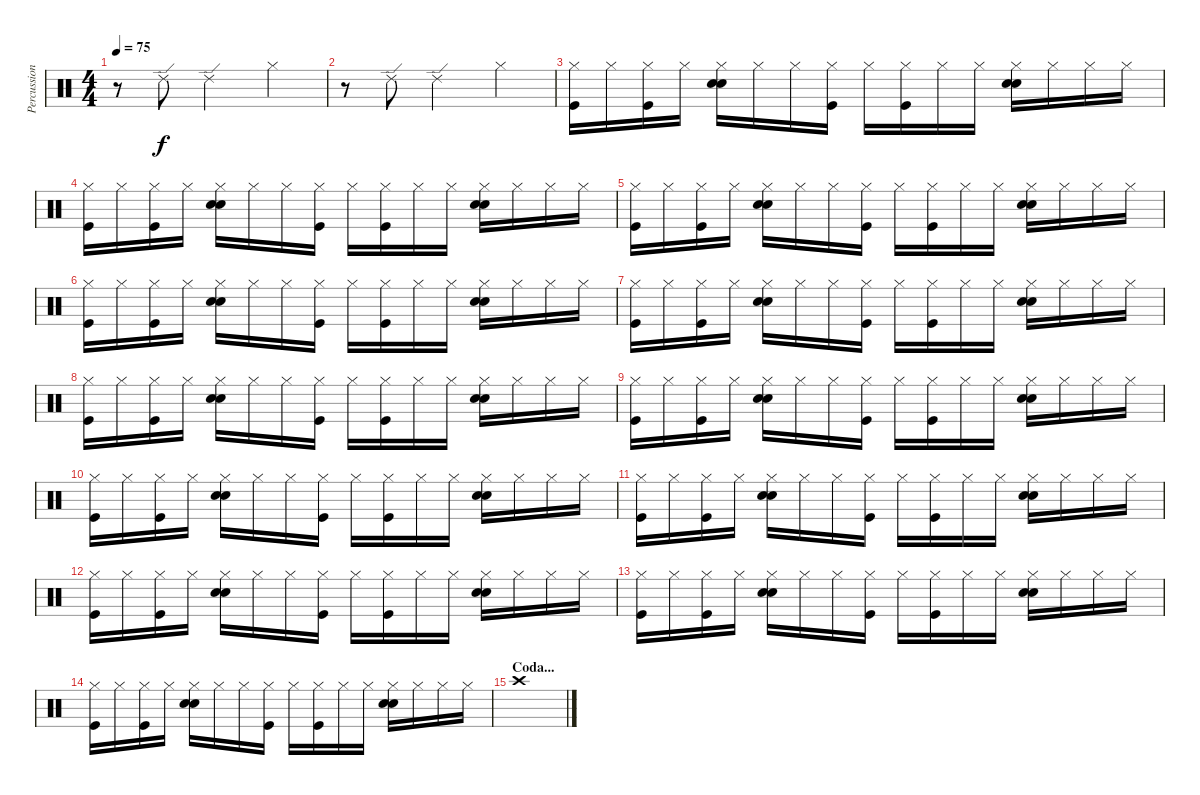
\track ("Percussion" "Percussion") {instrument percussion}
\staff {score}
\articulation defaults
\ts (4 4)
\tempo 75
\clef neutral
\ks c
r.8{dy f} "Ride (edge) 2".8 "Ride (edge) 2".2 "Hi-Hat (closed)".4 |
r.8 "Ride (edge) 2".8 "Ride (edge) 2".2 "Hi-Hat (closed)".4 |
("Kick (hit)" "Hi-Hat (closed)").16 "Hi-Hat (closed)".16 ("Kick (hit)" "Hi-Hat (closed)").16 "Hi-Hat (closed)".16 ("Snare (hit) 2" "Electric Snare (hit)" "Hi-Hat (closed)").16 "Hi-Hat (closed)".16 "Hi-Hat (closed)".16 ("Kick (hit)" "Hi-Hat (closed)").16 "Hi-Hat (closed)".16 ("Kick (hit)" "Hi-Hat (closed)").16 "Hi-Hat (closed)".16 "Hi-Hat (closed)".16 ("Snare (hit) 2" "Electric Snare (hit)" "Hi-Hat (closed)").16 "Hi-Hat (closed)".16 "Hi-Hat (closed)".16 "Hi-Hat (closed)".16 |
("Kick (hit)" "Hi-Hat (closed)").16 "Hi-Hat (closed)".16 ("Kick (hit)" "Hi-Hat (closed)").16 "Hi-Hat (closed)".16 ("Snare (hit) 2" "Electric Snare (hit)" "Hi-Hat (closed)").16 "Hi-Hat (closed)".16 "Hi-Hat (closed)".16 ("Kick (hit)" "Hi-Hat (closed)").16 "Hi-Hat (closed)".16 ("Kick (hit)" "Hi-Hat (closed)").16 "Hi-Hat (closed)".16 "Hi-Hat (closed)".16 ("Snare (hit) 2" "Electric Snare (hit)" "Hi-Hat (closed)").16 "Hi-Hat (closed)".16 "Hi-Hat (closed)".16 "Hi-Hat (closed)".16 |
("Kick (hit)" "Hi-Hat (closed)").16 "Hi-Hat (closed)".16 ("Kick (hit)" "Hi-Hat (closed)").16 "Hi-Hat (closed)".16 ("Snare (hit) 2" "Electric Snare (hit)" "Hi-Hat (closed)").16 "Hi-Hat (closed)".16 "Hi-Hat (closed)".16 ("Kick (hit)" "Hi-Hat (closed)").16 "Hi-Hat (closed)".16 ("Kick (hit)" "Hi-Hat (closed)").16 "Hi-Hat (closed)".16 "Hi-Hat (closed)".16 ("Snare (hit) 2" "Electric Snare (hit)" "Hi-Hat (closed)").16 "Hi-Hat (closed)".16 "Hi-Hat (closed)".16 "Hi-Hat (closed)".16 |
("Kick (hit)" "Hi-Hat (closed)").16 "Hi-Hat (closed)".16 ("Kick (hit)" "Hi-Hat (closed)").16 "Hi-Hat (closed)".16 ("Snare (hit) 2" "Electric Snare (hit)" "Hi-Hat (closed)").16 "Hi-Hat (closed)".16 "Hi-Hat (closed)".16 ("Kick (hit)" "Hi-Hat (closed)").16 "Hi-Hat (closed)".16 ("Kick (hit)" "Hi-Hat (closed)").16 "Hi-Hat (closed)".16 "Hi-Hat (closed)".16 ("Snare (hit) 2" "Electric Snare (hit)" "Hi-Hat (closed)").16 "Hi-Hat (closed)".16 "Hi-Hat (closed)".16 "Hi-Hat (closed)".16 |
("Kick (hit)" "Hi-Hat (closed)").16 "Hi-Hat (closed)".16 ("Kick (hit)" "Hi-Hat (closed)").16 "Hi-Hat (closed)".16 ("Snare (hit) 2" "Electric Snare (hit)" "Hi-Hat (closed)").16 "Hi-Hat (closed)".16 "Hi-Hat (closed)".16 ("Kick (hit)" "Hi-Hat (closed)").16 "Hi-Hat (closed)".16 ("Kick (hit)" "Hi-Hat (closed)").16 "Hi-Hat (closed)".16 "Hi-Hat (closed)".16 ("Snare (hit) 2" "Electric Snare (hit)" "Hi-Hat (closed)").16 "Hi-Hat (closed)".16 "Hi-Hat (closed)".16 "Hi-Hat (closed)".16 |
("Kick (hit)" "Hi-Hat (closed)").16 "Hi-Hat (closed)".16 ("Kick (hit)" "Hi-Hat (closed)").16 "Hi-Hat (closed)".16 ("Snare (hit) 2" "Electric Snare (hit)" "Hi-Hat (closed)").16 "Hi-Hat (closed)".16 "Hi-Hat (closed)".16 ("Kick (hit)" "Hi-Hat (closed)").16 "Hi-Hat (closed)".16 ("Kick (hit)" "Hi-Hat (closed)").16 "Hi-Hat (closed)".16 "Hi-Hat (closed)".16 ("Snare (hit) 2" "Electric Snare (hit)" "Hi-Hat (closed)").16 "Hi-Hat (closed)".16 "Hi-Hat (closed)".16 "Hi-Hat (closed)".16 |
("Kick (hit)" "Hi-Hat (closed)").16 "Hi-Hat (closed)".16 ("Kick (hit)" "Hi-Hat (closed)").16 "Hi-Hat (closed)".16 ("Snare (hit) 2" "Electric Snare (hit)" "Hi-Hat (closed)").16 "Hi-Hat (closed)".16 "Hi-Hat (closed)".16 ("Kick (hit)" "Hi-Hat (closed)").16 "Hi-Hat (closed)".16 ("Kick (hit)" "Hi-Hat (closed)").16 "Hi-Hat (closed)".16 "Hi-Hat (closed)".16 ("Snare (hit) 2" "Electric Snare (hit)" "Hi-Hat (closed)").16 "Hi-Hat (closed)".16 "Hi-Hat (closed)".16 "Hi-Hat (closed)".16 |
("Kick (hit)" "Hi-Hat (closed)").16 "Hi-Hat (closed)".16 ("Kick (hit)" "Hi-Hat (closed)").16 "Hi-Hat (closed)".16 ("Snare (hit) 2" "Electric Snare (hit)" "Hi-Hat (closed)").16 "Hi-Hat (closed)".16 "Hi-Hat (closed)".16 ("Kick (hit)" "Hi-Hat (closed)").16 "Hi-Hat (closed)".16 ("Kick (hit)" "Hi-Hat (closed)").16 "Hi-Hat (closed)".16 "Hi-Hat (closed)".16 ("Snare (hit) 2" "Electric Snare (hit)" "Hi-Hat (closed)").16 "Hi-Hat (closed)".16 "Hi-Hat (closed)".16 "Hi-Hat (closed)".16 |
("Kick (hit)" "Hi-Hat (closed)").16 "Hi-Hat (closed)".16 ("Kick (hit)" "Hi-Hat (closed)").16 "Hi-Hat (closed)".16 ("Snare (hit) 2" "Electric Snare (hit)" "Hi-Hat (closed)").16 "Hi-Hat (closed)".16 "Hi-Hat (closed)".16 ("Kick (hit)" "Hi-Hat (closed)").16 "Hi-Hat (closed)".16 ("Kick (hit)" "Hi-Hat (closed)").16 "Hi-Hat (closed)".16 "Hi-Hat (closed)".16 ("Snare (hit) 2" "Electric Snare (hit)" "Hi-Hat (closed)").16 "Hi-Hat (closed)".16 "Hi-Hat (closed)".16 "Hi-Hat (closed)".16 |
("Kick (hit)" "Hi-Hat (closed)").16 "Hi-Hat (closed)".16 ("Kick (hit)" "Hi-Hat (closed)").16 "Hi-Hat (closed)".16 ("Snare (hit) 2" "Electric Snare (hit)" "Hi-Hat (closed)").16 "Hi-Hat (closed)".16 "Hi-Hat (closed)".16 ("Kick (hit)" "Hi-Hat (closed)").16 "Hi-Hat (closed)".16 ("Kick (hit)" "Hi-Hat (closed)").16 "Hi-Hat (closed)".16 "Hi-Hat (closed)".16 ("Snare (hit) 2" "Electric Snare (hit)" "Hi-Hat (closed)").16 "Hi-Hat (closed)".16 "Hi-Hat (closed)".16 "Hi-Hat (closed)".16 |
("Kick (hit)" "Hi-Hat (closed)").16 "Hi-Hat (closed)".16 ("Kick (hit)" "Hi-Hat (closed)").16 "Hi-Hat (closed)".16 ("Snare (hit) 2" "Electric Snare (hit)" "Hi-Hat (closed)").16 "Hi-Hat (closed)".16 "Hi-Hat (closed)".16 ("Kick (hit)" "Hi-Hat (closed)").16 "Hi-Hat (closed)".16 ("Kick (hit)" "Hi-Hat (closed)").16 "Hi-Hat (closed)".16 "Hi-Hat (closed)".16 ("Snare (hit) 2" "Electric Snare (hit)" "Hi-Hat (closed)").16 "Hi-Hat (closed)".16 "Hi-Hat (closed)".16 "Hi-Hat (closed)".16 |
("Kick (hit)" "Hi-Hat (closed)").16 "Hi-Hat (closed)".16 ("Kick (hit)" "Hi-Hat (closed)").16 "Hi-Hat (closed)".16 ("Snare (hit) 2" "Electric Snare (hit)" "Hi-Hat (closed)").16 "Hi-Hat (closed)".16 "Hi-Hat (closed)".16 ("Kick (hit)" "Hi-Hat (closed)").16 "Hi-Hat (closed)".16 ("Kick (hit)" "Hi-Hat (closed)").16 "Hi-Hat (closed)".16 "Hi-Hat (closed)".16 ("Snare (hit) 2" "Electric Snare (hit)" "Hi-Hat (closed)").16 "Hi-Hat (closed)".16 "Hi-Hat (closed)".16 "Hi-Hat (closed)".16 |
\section ("" "Coda...")
"Crash high (hit)".1
